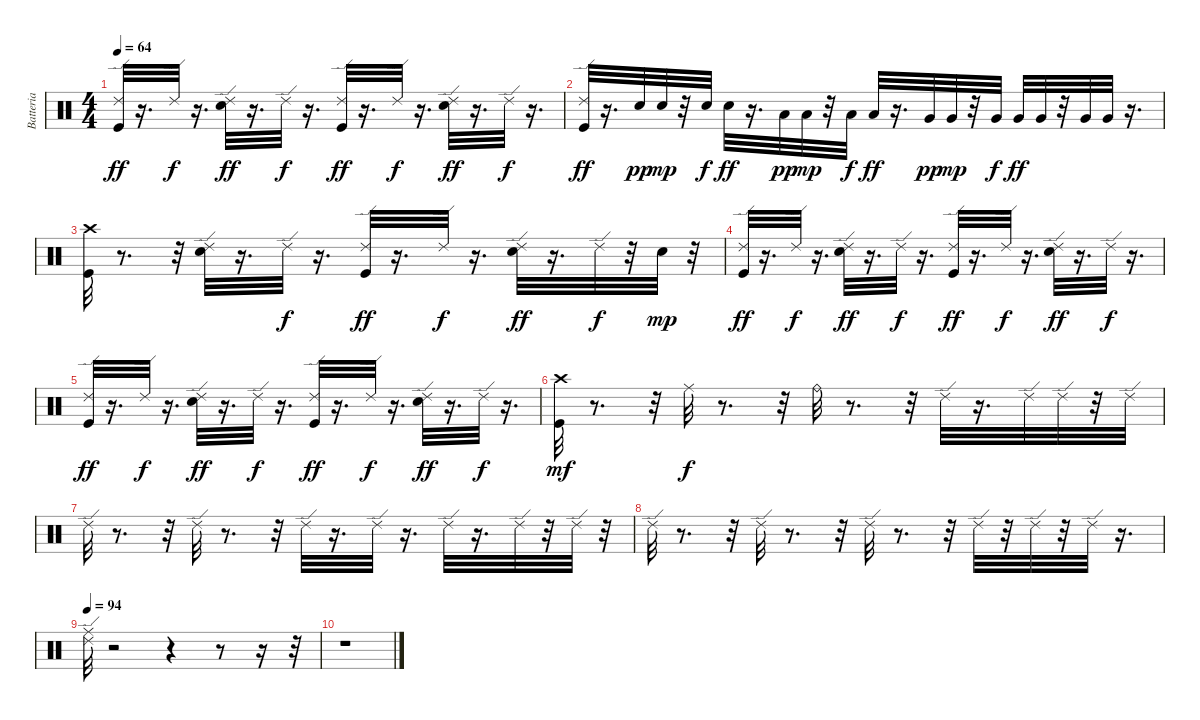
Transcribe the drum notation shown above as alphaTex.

\track ("Batteria" "Batteria") {instrument percussion}
\staff {score}
\articulation defaults
\ts (4 4)
\tempo 64
\clef neutral
\ks c
("Kick (hit)" "Ride (edge) 2").32{dy ff} r.16{d} "Ride (edge) 2".32{dy f} r.16{d} ("Snare (hit) 2" "Ride (edge) 2").32{dy ff} r.16{d} "Ride (edge) 2".32{dy f} r.16{d} ("Kick (hit)" "Ride (edge) 2").32{dy ff} r.16{d} "Ride (edge) 2".32{dy f} r.16{d} ("Snare (hit) 2" "Ride (edge) 2").32{dy ff} r.16{d} "Ride (edge) 2".32{dy f} r.16{d} |
("Kick (hit)" "Ride (edge) 2").32{dy ff} r.16{d} "Snare (hit) 2".32{dy pp} "Snare (hit) 2".32{dy mp} r.32 "Snare (hit) 2".32{dy f} "Snare (hit) 2".32{dy ff} r.16{d} "Low Tom (hit)".32{dy pp} "Low Tom (hit)".32{dy mp} r.32 "Low Tom (hit)".32{dy f} "Low Tom (hit)".32{dy ff} r.16{d} "Very Low Tom (hit)".32{dy pp} "Very Low Tom (hit)".32{dy mp} r.32 "Very Low Tom (hit)".32{dy f} "Very Low Tom (hit)".32{dy ff} "Very Low Tom (hit)".32 r.32 "Very Low Tom (hit)".32 "Very Low Tom (hit)".32 r.16{d} |
("Kick (hit)" "Crash high (hit)").32 r.8{d} r.32 ("Snare (hit) 2" "Ride (edge) 2").32 r.16{d} "Ride (edge) 2".32{dy f} r.16{d} ("Kick (hit)" "Ride (edge) 2").32{dy ff} r.16{d} "Ride (edge) 2".32{dy f} r.16{d} ("Snare (hit) 2" "Ride (edge) 2").32{dy ff} r.16{d} "Ride (edge) 2".32{dy f} r.32 "Snare (hit) 2".32{dy mp} r.32 |
("Kick (hit)" "Ride (edge) 2").32{dy ff} r.16{d} "Ride (edge) 2".32{dy f} r.16{d} ("Snare (hit) 2" "Ride (edge) 2").32{dy ff} r.16{d} "Ride (edge) 2".32{dy f} r.16{d} ("Kick (hit)" "Ride (edge) 2").32{dy ff} r.16{d} "Ride (edge) 2".32{dy f} r.16{d} ("Snare (hit) 2" "Ride (edge) 2").32{dy ff} r.16{d} "Ride (edge) 2".32{dy f} r.16{d} |
("Kick (hit)" "Ride (edge) 2").32{dy ff} r.16{d} "Ride (edge) 2".32{dy f} r.16{d} ("Snare (hit) 2" "Ride (edge) 2").32{dy ff} r.16{d} "Ride (edge) 2".32{dy f} r.16{d} ("Kick (hit)" "Ride (edge) 2").32{dy ff} r.16{d} "Ride (edge) 2".32{dy f} r.16{d} ("Snare (hit) 2" "Ride (edge) 2").32{dy ff} r.16{d} "Ride (edge) 2".32{dy f} r.16{d} |
("Kick (hit)" "Crash high (hit)").32{dy mf} r.8{d} r.32 "Ride (middle)".32{dy f} r.8{d} r.32 "Ride (bell)".32 r.8{d} r.32 "Ride (edge) 2".32 r.16{d} "Ride (edge) 2".32 "Ride (edge) 2".32 r.32 "Ride (edge) 2".32 |
"Ride (edge) 2".32 r.8{d} r.32 "Ride (edge) 2".32 r.8{d} r.32 "Ride (edge) 2".32 r.16{d} "Ride (edge) 2".32 r.16{d} "Ride (edge) 2".32 r.16{d} "Ride (edge) 2".32 r.32 "Ride (edge) 2".32 r.32 |
"Ride (edge) 2".32 r.8{d} r.32 "Ride (edge) 2".32 r.8{d} r.32 "Ride (edge) 2".32 r.8{d} r.32 "Ride (edge) 2".32 r.32 "Ride (edge) 2".32 r.32 "Ride (edge) 2".32 r.16{d} |
\tempo 94
("Ride (middle)" "Ride (edge) 2").32 r.2 r.4 r.8 r.16 r.32 |
r.1
